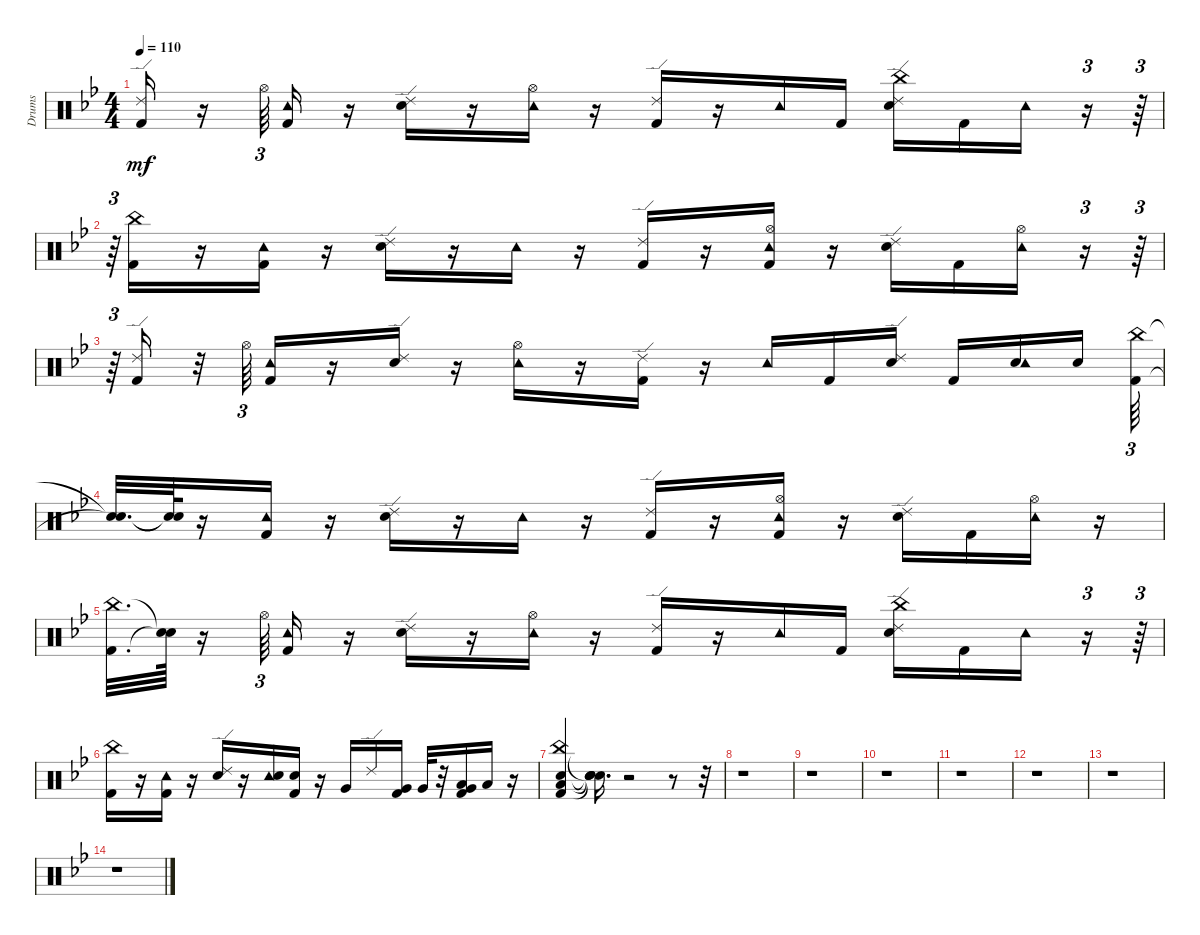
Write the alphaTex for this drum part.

\track ("Drums" "Drums") {instrument percussion}
\staff {score}
\articulation defaults
\ts (4 4)
\tempo 110
\clef neutral
\ks gminor
("Kick (hit) 2" "Ride (edge) 2").16{dy mf} r.16 "Hi-Hat (open)".64{tu (3 2)} ("Kick (hit) 2" "Tambourine (hit)").16 r.16 ("Snare (hit) 2" "Ride (edge) 2").16 r.16 ("Hi-Hat (open)" "Tambourine (hit)").16 r.16 ("Kick (hit) 2" "Ride (edge) 2").16 r.16 "Tambourine (hit)".16 "Kick (hit) 2".16 ("Snare (hit) 2" "China (hit)" "Ride (edge) 2").16 "Kick (hit) 2".16 "Tambourine (hit)".16 r.16{tu (3 2)} r.64{tu (3 2)} |
r.64{tu (3 2)} ("Kick (hit) 2" "China (hit)").16 r.16 ("Kick (hit) 2" "Tambourine (hit)").16 r.16 ("Snare (hit) 2" "Ride (edge) 2").16 r.16 "Tambourine (hit)".16 r.16 ("Kick (hit) 2" "Ride (edge) 2").16 r.16 ("Kick (hit) 2" "Hi-Hat (open)" "Tambourine (hit)").16 r.16 ("Snare (hit) 2" "Ride (edge) 2").16 "Kick (hit) 2".16 ("Hi-Hat (open)" "Tambourine (hit)").16 r.16{tu (3 2)} r.64{tu (3 2)} |
r.64{tu (3 2)} ("Kick (hit) 2" "Ride (edge) 2").16 r.32 "Hi-Hat (open)".64{tu (3 2)} ("Kick (hit) 2" "Tambourine (hit)").16 r.16 ("Snare (hit) 2" "Ride (edge) 2").16 r.16 ("Hi-Hat (open)" "Tambourine (hit)").16 r.16 ("Kick (hit) 2" "Ride (edge) 2").16 r.16 "Tambourine (hit)".16 "Kick (hit) 2".16 ("Snare (hit) 2" "Ride (edge) 2").16 "Kick (hit) 2".16 ("Snare (hit) 2" "Tambourine (hit)").16 "Snare (hit) 2".16{beam splitsecondary} ("Kick (hit) 2" "China (hit)").64{tu (3 2)} |
("Snare (hit)"{t} "Snare (hit)"{t}).32{d} ("Snare (hit)"{t} "Snare (hit)"{t}).64 r.16 ("Kick (hit) 2" "Tambourine (hit)").16 r.16 ("Snare (hit) 2" "Ride (edge) 2").16 r.16 "Tambourine (hit)".16 r.16 ("Kick (hit) 2" "Ride (edge) 2").16 r.16 ("Kick (hit) 2" "Hi-Hat (open)" "Tambourine (hit)").16 r.16 ("Snare (hit) 2" "Ride (edge) 2").16 "Kick (hit) 2".16 ("Hi-Hat (open)" "Tambourine (hit)").16 r.16 |
("Kick (hit) 2" "China (hit)").32{d} ("Snare (hit)"{t} "Snare (hit)"{t}).64 r.16 "Hi-Hat (open)".64{tu (3 2)} ("Kick (hit) 2" "Tambourine (hit)").16 r.16 ("Snare (hit) 2" "Ride (edge) 2").16 r.16 ("Hi-Hat (open)" "Tambourine (hit)").16 r.16 ("Kick (hit) 2" "Ride (edge) 2").16 r.16 "Tambourine (hit)".16 "Kick (hit) 2".16 ("Snare (hit) 2" "China (hit)" "Ride (edge) 2").16 "Kick (hit) 2".16 "Tambourine (hit)".16 r.16{tu (3 2)} r.64{tu (3 2)} |
("Kick (hit) 2" "China (hit)").16 r.16 ("Kick (hit) 2" "Tambourine (hit)").16 r.16 ("Snare (hit) 2" "Ride (edge) 2").16 r.16 ("Tambourine (hit)" "Snare (hit) 2").16 ("Kick (hit) 2" "Snare (hit) 2").16 r.16 "Very Low Tom (hit)".16 "Ride (edge) 2".16 ("Kick (hit) 2" "Very Low Tom (hit)").16 "Very Low Tom (hit)".32 r.32 ("Kick (hit) 2" "Low Floor Tom (hit)" "Very Low Tom (hit)").16 "Low Floor Tom (hit)".16 r.16 |
("Kick (hit) 2" "Snare (hit) 2" "Low Floor Tom (hit)" "China (hit)").4 ("Snare (hit)"{t} "Snare (hit)"{t} "Snare (hit)"{t} "Snare (hit)"{t}).16{d} r.2 r.8 r.32 |
r.1 |
r.1 |
r.1 |
r.1 |
r.1 |
r.1 |
r.1
